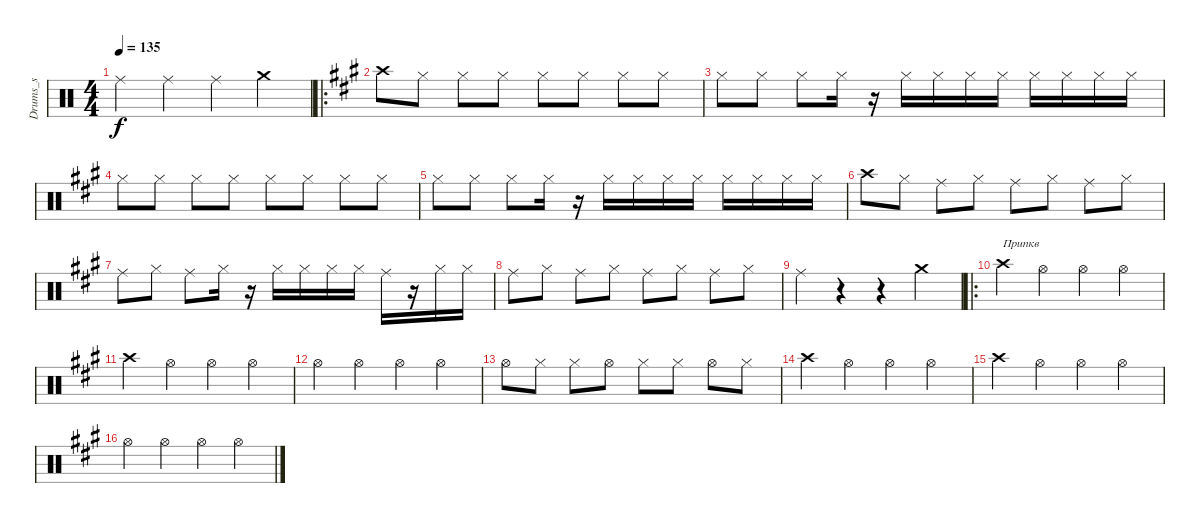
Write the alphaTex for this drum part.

\track ("Drums_s" "Drums_s") {instrument percussion}
\staff {score}
\articulation defaults
\ts (4 4)
\tempo 135
\clef neutral
\ks c "Ride (middle)".4{dy f} "Ride (middle)".4 "Ride (middle)".4 "Crash medium (hit)".4
|
\ro
\ks a "Crash high (hit)".8 "Hi-Hat (closed)".8 "Hi-Hat (closed)".8 "Hi-Hat (closed)".8 "Hi-Hat (closed)".8 "Hi-Hat (closed)".8 "Hi-Hat (closed)".8 "Hi-Hat (closed)".8
|
"Hi-Hat (closed)".8 "Hi-Hat (closed)".8 "Hi-Hat (closed)".8 "Hi-Hat (closed)".16 r.16 "Hi-Hat (closed)".16 "Hi-Hat (closed)".16 "Hi-Hat (closed)".16 "Hi-Hat (closed)".16 "Hi-Hat (closed)".16 "Hi-Hat (closed)".16 "Hi-Hat (closed)".16 "Hi-Hat (closed)".16 |
"Hi-Hat (closed)".8 "Hi-Hat (closed)".8 "Hi-Hat (closed)".8 "Hi-Hat (closed)".8 "Hi-Hat (closed)".8 "Hi-Hat (closed)".8 "Hi-Hat (closed)".8 "Hi-Hat (closed)".8 |
"Hi-Hat (closed)".8 "Hi-Hat (closed)".8 "Hi-Hat (closed)".8 "Hi-Hat (closed)".16 r.16 "Hi-Hat (closed)".16 "Hi-Hat (closed)".16 "Hi-Hat (closed)".16 "Hi-Hat (closed)".16 "Hi-Hat (closed)".16 "Hi-Hat (closed)".16 "Hi-Hat (closed)".16 "Hi-Hat (closed)".16 |
"Crash high (hit)".8 "Hi-Hat (closed)".8 "Ride (middle)".8 "Hi-Hat (closed)".8 "Ride (middle)".8 "Hi-Hat (closed)".8 "Ride (middle)".8 "Hi-Hat (closed)".8 |
"Ride (middle)".8 "Hi-Hat (closed)".8 "Ride (middle)".8 "Hi-Hat (closed)".16 r.16 "Hi-Hat (closed)".16 "Hi-Hat (closed)".16 "Hi-Hat (closed)".16 "Hi-Hat (closed)".16 "Ride (middle)".16 r.16 "Hi-Hat (closed)".16 "Hi-Hat (closed)".16 |
"Ride (middle)".8 "Hi-Hat (closed)".8 "Ride (middle)".8 "Hi-Hat (closed)".8 "Ride (middle)".8 "Hi-Hat (closed)".8 "Ride (middle)".8 "Hi-Hat (closed)".8 |
"Ride (middle)".4 r.4 r.4 "Crash medium (hit)".4 |
\ro "Crash high (hit)".4{txt "Припкв"} "Hi-Hat (open)".4 "Hi-Hat (open)".4 "Hi-Hat (open)".4
|
"Crash high (hit)".4 "Hi-Hat (open)".4 "Hi-Hat (open)".4 "Hi-Hat (open)".4 |
"Hi-Hat (open)".4 "Hi-Hat (open)".4 "Hi-Hat (open)".4 "Hi-Hat (open)".4 |
"Hi-Hat (open)".8 "Hi-Hat (closed)".8 "Hi-Hat (closed)".8 "Hi-Hat (open)".8 "Hi-Hat (closed)".8 "Hi-Hat (closed)".8 "Hi-Hat (open)".8 "Hi-Hat (closed)".8 |
"Crash high (hit)".4 "Hi-Hat (open)".4 "Hi-Hat (open)".4 "Hi-Hat (open)".4 |
"Crash high (hit)".4 "Hi-Hat (open)".4 "Hi-Hat (open)".4 "Hi-Hat (open)".4 |
"Hi-Hat (open)".4 "Hi-Hat (open)".4 "Hi-Hat (open)".4 "Hi-Hat (open)".4
